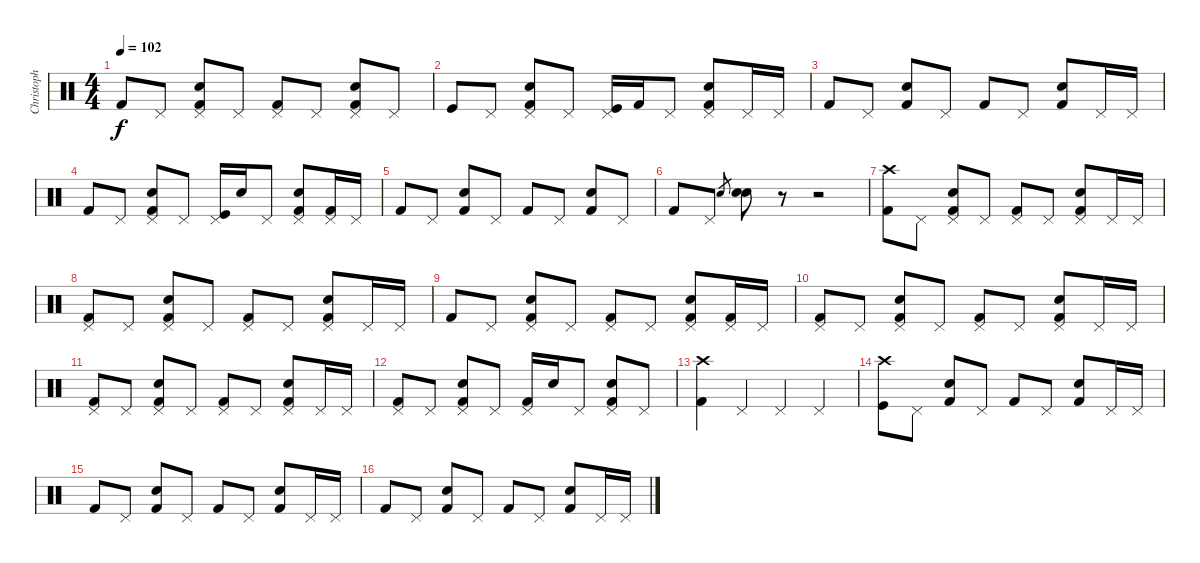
\track ("Christoph Schneider" "Christoph ") {instrument percussion}
\staff {score}
\articulation defaults
\ts (4 4)
\tempo 102
\clef neutral
\ks c "Kick (hit) 2".8{dy f} "Pedal Hi-Hat (hit)".8
("Pedal Hi-Hat (hit)" "Snare (hit) 2" "Kick (hit) 2").8 "Pedal Hi-Hat (hit)".8 ("Pedal Hi-Hat (hit)" "Kick (hit) 2").8 "Pedal Hi-Hat (hit)".8 ("Pedal Hi-Hat (hit)" "Snare (hit) 2" "Kick (hit) 2").8 "Pedal Hi-Hat (hit)".8 |
"Kick (hit)".8 "Pedal Hi-Hat (hit)".8 ("Pedal Hi-Hat (hit)" "Snare (hit) 2" "Kick (hit) 2").8 "Pedal Hi-Hat (hit)".8 ("Pedal Hi-Hat (hit)" "Kick (hit)").16 "Kick (hit) 2".16 "Pedal Hi-Hat (hit)".8 ("Pedal Hi-Hat (hit)" "Kick (hit) 2" "Snare (hit) 2").8 "Pedal Hi-Hat (hit)".16 "Pedal Hi-Hat (hit)".16 |
"Kick (hit) 2".8 "Pedal Hi-Hat (hit)".8 ("Snare (hit) 2" "Kick (hit) 2").8 "Pedal Hi-Hat (hit)".8 "Kick (hit) 2".8 "Pedal Hi-Hat (hit)".8 ("Snare (hit) 2" "Kick (hit) 2").8 "Pedal Hi-Hat (hit)".16 "Pedal Hi-Hat (hit)".16 |
"Kick (hit) 2".8 "Pedal Hi-Hat (hit)".8 ("Pedal Hi-Hat (hit)" "Snare (hit) 2" "Kick (hit) 2").8 "Pedal Hi-Hat (hit)".8 ("Pedal Hi-Hat (hit)" "Kick (hit)").16 "Snare (hit) 2".16 "Pedal Hi-Hat (hit)".8 ("Pedal Hi-Hat (hit)" "Snare (hit) 2" "Kick (hit) 2").8 ("Pedal Hi-Hat (hit)" "Kick (hit) 2").16 "Pedal Hi-Hat (hit)".16 |
"Kick (hit) 2".8 "Pedal Hi-Hat (hit)".8 ("Snare (hit) 2" "Kick (hit) 2").8 "Pedal Hi-Hat (hit)".8 "Kick (hit) 2".8 "Pedal Hi-Hat (hit)".8 ("Snare (hit) 2" "Kick (hit) 2").8 "Pedal Hi-Hat (hit)".8 |
"Kick (hit) 2".8 "Pedal Hi-Hat (hit)".8 "Snare (hit) 2".8{gr} ("Snare (hit) 2" "Snare (hit) 2").8 r.8 r.2 |
("Crash high (hit)" "Kick (hit) 2").8 "Pedal Hi-Hat (hit)".8 ("Pedal Hi-Hat (hit)" "Snare (hit) 2" "Kick (hit) 2").8 "Pedal Hi-Hat (hit)".8 ("Pedal Hi-Hat (hit)" "Kick (hit) 2").8 "Pedal Hi-Hat (hit)".8 ("Pedal Hi-Hat (hit)" "Snare (hit) 2" "Kick (hit) 2").8 "Pedal Hi-Hat (hit)".16 "Pedal Hi-Hat (hit)".16 |
("Pedal Hi-Hat (hit)" "Kick (hit) 2").8 "Pedal Hi-Hat (hit)".8 ("Pedal Hi-Hat (hit)" "Snare (hit) 2" "Kick (hit) 2").8 "Pedal Hi-Hat (hit)".8 ("Pedal Hi-Hat (hit)" "Kick (hit) 2").8 "Pedal Hi-Hat (hit)".8 ("Pedal Hi-Hat (hit)" "Snare (hit) 2" "Kick (hit) 2").8 "Pedal Hi-Hat (hit)".16 "Pedal Hi-Hat (hit)".16 |
"Kick (hit) 2".8 "Pedal Hi-Hat (hit)".8 ("Pedal Hi-Hat (hit)" "Snare (hit) 2" "Kick (hit) 2").8 "Pedal Hi-Hat (hit)".8 ("Pedal Hi-Hat (hit)" "Kick (hit) 2").8 "Pedal Hi-Hat (hit)".8 ("Pedal Hi-Hat (hit)" "Snare (hit) 2" "Kick (hit) 2").8 ("Pedal Hi-Hat (hit)" "Kick (hit) 2").16 "Pedal Hi-Hat (hit)".16 |
("Pedal Hi-Hat (hit)" "Kick (hit) 2").8 "Pedal Hi-Hat (hit)".8 ("Pedal Hi-Hat (hit)" "Snare (hit) 2" "Kick (hit) 2").8 "Pedal Hi-Hat (hit)".8 ("Pedal Hi-Hat (hit)" "Kick (hit) 2").8 "Pedal Hi-Hat (hit)".8 ("Pedal Hi-Hat (hit)" "Snare (hit) 2" "Kick (hit) 2").8 "Pedal Hi-Hat (hit)".16 "Pedal Hi-Hat (hit)".16 |
("Pedal Hi-Hat (hit)" "Kick (hit) 2").8 "Pedal Hi-Hat (hit)".8 ("Pedal Hi-Hat (hit)" "Snare (hit) 2" "Kick (hit) 2").8 "Pedal Hi-Hat (hit)".8 ("Pedal Hi-Hat (hit)" "Kick (hit) 2").8 "Pedal Hi-Hat (hit)".8 ("Pedal Hi-Hat (hit)" "Snare (hit) 2" "Kick (hit) 2").8 "Pedal Hi-Hat (hit)".16 "Pedal Hi-Hat (hit)".16 |
("Pedal Hi-Hat (hit)" "Kick (hit) 2").8 "Pedal Hi-Hat (hit)".8 ("Pedal Hi-Hat (hit)" "Snare (hit) 2" "Kick (hit) 2").8 "Pedal Hi-Hat (hit)".8 ("Pedal Hi-Hat (hit)" "Kick (hit) 2").16 "Snare (hit) 2".16 "Pedal Hi-Hat (hit)".8 ("Pedal Hi-Hat (hit)" "Snare (hit) 2" "Kick (hit) 2").8 "Pedal Hi-Hat (hit)".8 |
("Crash high (hit)" "Kick (hit) 2").4 "Pedal Hi-Hat (hit)".4 "Pedal Hi-Hat (hit)".4 "Pedal Hi-Hat (hit)".4 |
("Crash high (hit)" "Kick (hit)").8 "Pedal Hi-Hat (hit)".8 ("Snare (hit) 2" "Kick (hit) 2").8 "Pedal Hi-Hat (hit)".8 "Kick (hit) 2".8 "Pedal Hi-Hat (hit)".8 ("Snare (hit) 2" "Kick (hit) 2").8 "Pedal Hi-Hat (hit)".16 "Pedal Hi-Hat (hit)".16 |
"Kick (hit) 2".8 "Pedal Hi-Hat (hit)".8 ("Snare (hit) 2" "Kick (hit) 2").8 "Pedal Hi-Hat (hit)".8 "Kick (hit) 2".8 "Pedal Hi-Hat (hit)".8 ("Snare (hit) 2" "Kick (hit) 2").8 "Pedal Hi-Hat (hit)".16 "Pedal Hi-Hat (hit)".16 |
"Kick (hit) 2".8 "Pedal Hi-Hat (hit)".8 ("Snare (hit) 2" "Kick (hit) 2").8 "Pedal Hi-Hat (hit)".8 "Kick (hit) 2".8 "Pedal Hi-Hat (hit)".8 ("Snare (hit) 2" "Kick (hit) 2").8 "Pedal Hi-Hat (hit)".16 "Pedal Hi-Hat (hit)".16
